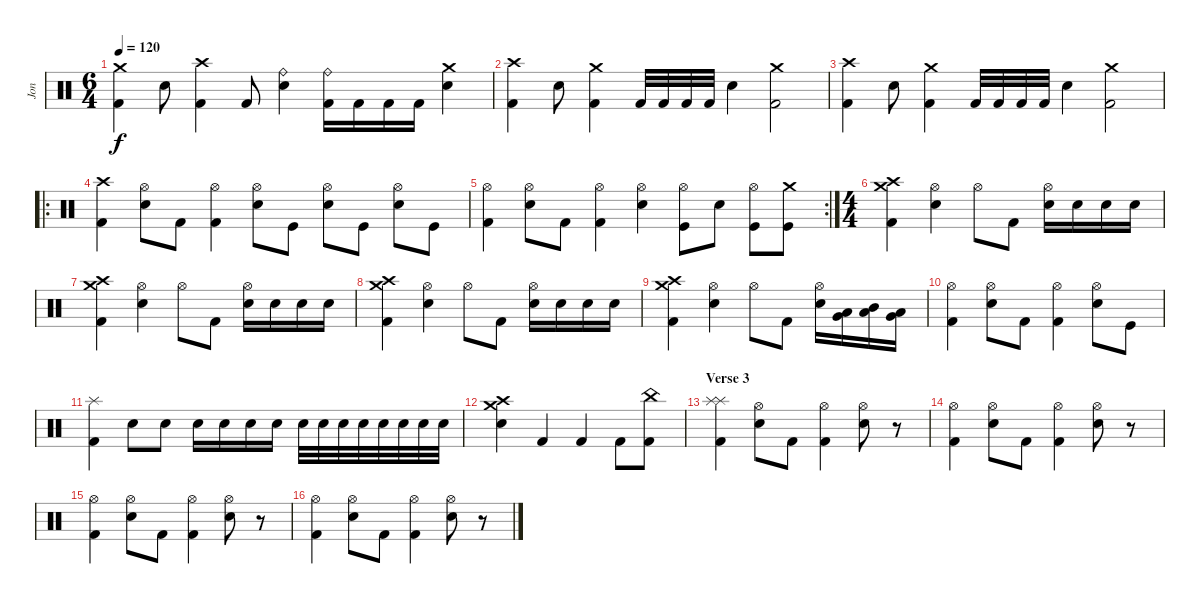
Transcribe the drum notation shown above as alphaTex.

\track ("Jon" "Jon") {instrument percussion}
\staff {score}
\articulation defaults
\ts (6 4)
\tempo 120
\clef neutral
\ks c
("Crash medium (hit)" "Kick (hit) 2").4{dy f} "Snare (hit) 2".8 ("Crash high (hit)" "Kick (hit) 2").4 "Kick (hit) 2".8 ("Ride (bell)" "Snare (hit) 2").4 ("Ride (bell)" "Kick (hit) 2").16 "Kick (hit) 2".16 "Kick (hit) 2".16 "Kick (hit) 2".16 ("Crash medium (hit)" "Snare (hit) 2").4 |
("Crash high (hit)" "Kick (hit) 2").4 "Snare (hit) 2".8 ("Crash medium (hit)" "Kick (hit) 2").4 "Kick (hit) 2".32 "Kick (hit) 2".32 "Kick (hit) 2".32 "Kick (hit) 2".32 "Snare (hit) 2".4 ("Crash medium (hit)" "Kick (hit) 2").2 |
("Crash high (hit)" "Kick (hit) 2").4 "Snare (hit) 2".8 ("Crash medium (hit)" "Kick (hit) 2").4 "Kick (hit) 2".32 "Kick (hit) 2".32 "Kick (hit) 2".32 "Kick (hit) 2".32 "Snare (hit) 2".4 ("Crash medium (hit)" "Kick (hit) 2").2 |
\ro
("Crash high (hit)" "Kick (hit) 2").4 ("Snare (hit) 2" "Hi-Hat (open)").8 "Kick (hit) 2".8 ("Hi-Hat (open)" "Kick (hit) 2").4 ("Snare (hit) 2" "Hi-Hat (open)").8 "Kick (hit)".8 ("Hi-Hat (open)" "Snare (hit) 2").8 "Kick (hit)".8 ("Hi-Hat (open)" "Snare (hit) 2").8 "Kick (hit)".8 |
\rc 2
("Hi-Hat (open)" "Kick (hit) 2").4 ("Snare (hit) 2" "Hi-Hat (open)").8 "Kick (hit) 2".8 ("Hi-Hat (open)" "Kick (hit) 2").4 ("Snare (hit) 2" "Hi-Hat (open)").4 ("Hi-Hat (open)" "Kick (hit)").8 "Snare (hit) 2".8 ("Hi-Hat (open)" "Kick (hit)").8 ("Crash medium (hit)" "Kick (hit)").8 |
\ts (4 4)
("Crash high (hit)" "Crash medium (hit)" "Kick (hit) 2").4 ("Snare (hit) 2" "Hi-Hat (open)").4 "Hi-Hat (open)".8 "Kick (hit) 2".8 ("Hi-Hat (open)" "Snare (hit) 2").16 "Snare (hit) 2".16 "Snare (hit) 2".16 "Snare (hit) 2".16 |
("Crash high (hit)" "Crash medium (hit)" "Kick (hit) 2").4 ("Snare (hit) 2" "Hi-Hat (open)").4 "Hi-Hat (open)".8 "Kick (hit) 2".8 ("Hi-Hat (open)" "Snare (hit) 2").16 "Snare (hit) 2".16 "Snare (hit) 2".16 "Snare (hit) 2".16 |
("Crash high (hit)" "Crash medium (hit)" "Kick (hit) 2").4 ("Snare (hit) 2" "Hi-Hat (open)").4 "Hi-Hat (open)".8 "Kick (hit) 2".8 ("Hi-Hat (open)" "Snare (hit) 2").16 "Snare (hit) 2".16 "Snare (hit) 2".16 "Snare (hit) 2".16 |
("Crash high (hit)" "Crash medium (hit)" "Kick (hit) 2").4 ("Snare (hit) 2" "Hi-Hat (open)").4 "Hi-Hat (open)".8 "Kick (hit) 2".8 ("Hi-Hat (open)" "Snare (hit) 2").16 ("Very Low Tom (hit)" "Low Tom (hit)").16 ("Low Tom (hit)" "Mid Tom (hit)").16 ("Very Low Tom (hit)" "Low Tom (hit)").16 |
("Hi-Hat (open)" "Kick (hit) 2").4 ("Snare (hit) 2" "Hi-Hat (open)").8 "Kick (hit) 2".8 ("Hi-Hat (open)" "Kick (hit) 2").4 ("Snare (hit) 2" "Hi-Hat (open)").8 "Kick (hit)".8 |
("Splash (hit)" "Kick (hit) 2").4 "Snare (hit) 2".8 "Snare (hit) 2".8 "Snare (hit) 2".16 "Snare (hit) 2".16 "Snare (hit) 2".16 "Snare (hit) 2".16 "Snare (hit) 2".32 "Snare (hit) 2".32 "Snare (hit) 2".32 "Snare (hit) 2".32 "Snare (hit) 2".32 "Snare (hit) 2".32 "Snare (hit) 2".32 "Snare (hit) 2".32 |
("Crash medium (hit)" "Crash high (hit)" "Snare (hit) 2").4 "Kick (hit) 2".4 "Kick (hit) 2".4 "Kick (hit) 2".8 ("China (hit)" "Kick (hit) 2").8 |
\section ("" "Verse 3")
("Splash (hit)" "Splash (hit)" "Kick (hit) 2").4 ("Snare (hit) 2" "Hi-Hat (open)").8 "Kick (hit) 2".8 ("Hi-Hat (open)" "Kick (hit) 2").4 ("Snare (hit) 2" "Hi-Hat (open)").8 r.8 |
("Hi-Hat (open)" "Kick (hit) 2").4 ("Snare (hit) 2" "Hi-Hat (open)").8 "Kick (hit) 2".8 ("Hi-Hat (open)" "Kick (hit) 2").4 ("Snare (hit) 2" "Hi-Hat (open)").8 r.8 |
("Hi-Hat (open)" "Kick (hit) 2").4 ("Snare (hit) 2" "Hi-Hat (open)").8 "Kick (hit) 2".8 ("Hi-Hat (open)" "Kick (hit) 2").4 ("Snare (hit) 2" "Hi-Hat (open)").8 r.8 |
("Hi-Hat (open)" "Kick (hit) 2").4 ("Snare (hit) 2" "Hi-Hat (open)").8 "Kick (hit) 2".8 ("Hi-Hat (open)" "Kick (hit) 2").4 ("Snare (hit) 2" "Hi-Hat (open)").8 r.8
